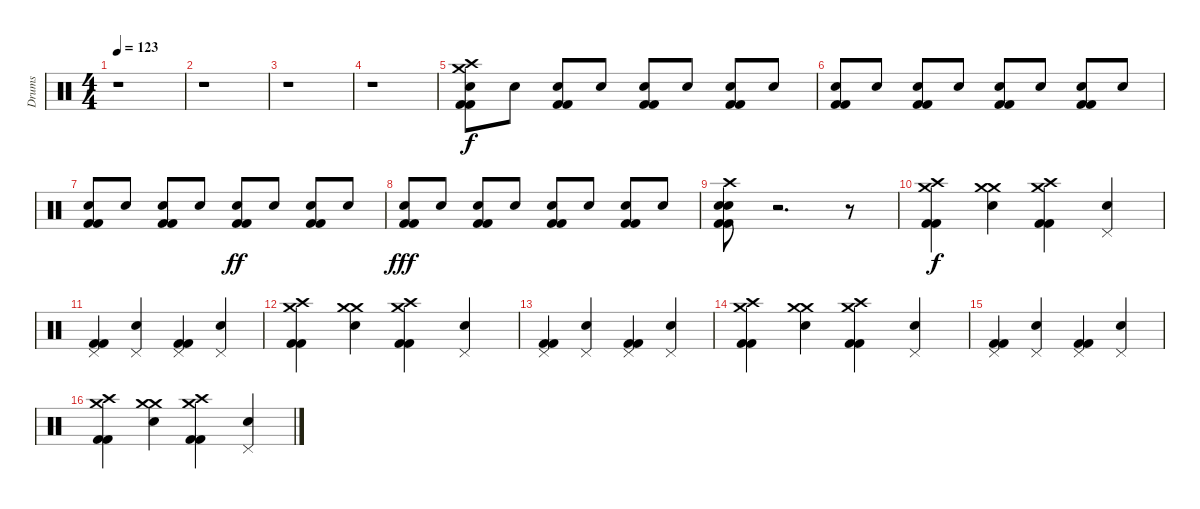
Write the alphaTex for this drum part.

\track ("Drums" "Drums") {instrument percussion}
\staff {score}
\articulation defaults
\ts (4 4)
\tempo 123
\clef neutral
\ks c
r.1{dy f} |
r.1 |
r.1 |
r.1 |
("Crash medium (hit)" "Crash high (hit)" "Snare (hit) 2" "Kick (hit) 2" "Kick (hit) 2").8 "Snare (hit) 2".8 ("Snare (hit) 2" "Kick (hit) 2" "Kick (hit) 2").8 "Snare (hit) 2".8 ("Snare (hit) 2" "Kick (hit) 2" "Kick (hit) 2").8 "Snare (hit) 2".8 ("Snare (hit) 2" "Kick (hit) 2" "Kick (hit) 2").8 "Snare (hit) 2".8 |
("Snare (hit) 2" "Kick (hit) 2" "Kick (hit) 2").8 "Snare (hit) 2".8 ("Snare (hit) 2" "Kick (hit) 2" "Kick (hit) 2").8 "Snare (hit) 2".8 ("Snare (hit) 2" "Kick (hit) 2" "Kick (hit) 2").8 "Snare (hit) 2".8 ("Snare (hit) 2" "Kick (hit) 2" "Kick (hit) 2").8 "Snare (hit) 2".8 |
("Snare (hit) 2" "Kick (hit) 2" "Kick (hit) 2").8 "Snare (hit) 2".8 ("Snare (hit) 2" "Kick (hit) 2" "Kick (hit) 2").8 "Snare (hit) 2".8 ("Snare (hit) 2" "Kick (hit) 2" "Kick (hit) 2").8{dy ff} "Snare (hit) 2".8 ("Snare (hit) 2" "Kick (hit) 2" "Kick (hit) 2").8 "Snare (hit) 2".8 |
("Snare (hit) 2" "Kick (hit) 2" "Kick (hit) 2").8{dy fff} "Snare (hit) 2".8 ("Snare (hit) 2" "Kick (hit) 2" "Kick (hit) 2").8 "Snare (hit) 2".8 ("Snare (hit) 2" "Kick (hit) 2" "Kick (hit) 2").8 "Snare (hit) 2".8 ("Snare (hit) 2" "Kick (hit) 2" "Kick (hit) 2").8 "Snare (hit) 2".8 |
("Crash high (hit)" "Snare (hit) 2" "Snare (hit) 2" "Kick (hit) 2" "Kick (hit) 2").8 r.2{d} r.8 |
("Crash medium (hit)" "Crash high (hit)" "Kick (hit) 2" "Kick (hit) 2").4{dy f} ("Crash medium (hit)" "Crash medium (hit)" "Snare (hit) 2").4 ("Crash medium (hit)" "Crash high (hit)" "Kick (hit) 2" "Kick (hit) 2").4 ("Pedal Hi-Hat (hit)" "Snare (hit) 2").4 |
("Pedal Hi-Hat (hit)" "Kick (hit) 2" "Kick (hit) 2").4 ("Pedal Hi-Hat (hit)" "Snare (hit) 2").4 ("Pedal Hi-Hat (hit)" "Kick (hit) 2" "Kick (hit) 2").4 ("Pedal Hi-Hat (hit)" "Snare (hit) 2").4 |
("Crash medium (hit)" "Crash high (hit)" "Kick (hit) 2" "Kick (hit) 2").4 ("Crash medium (hit)" "Crash medium (hit)" "Snare (hit) 2").4 ("Crash medium (hit)" "Crash high (hit)" "Kick (hit) 2" "Kick (hit) 2").4 ("Pedal Hi-Hat (hit)" "Snare (hit) 2").4 |
("Pedal Hi-Hat (hit)" "Kick (hit) 2" "Kick (hit) 2").4 ("Pedal Hi-Hat (hit)" "Snare (hit) 2").4 ("Pedal Hi-Hat (hit)" "Kick (hit) 2" "Kick (hit) 2").4 ("Pedal Hi-Hat (hit)" "Snare (hit) 2").4 |
("Crash medium (hit)" "Crash high (hit)" "Kick (hit) 2" "Kick (hit) 2").4 ("Crash medium (hit)" "Crash medium (hit)" "Snare (hit) 2").4 ("Crash medium (hit)" "Crash high (hit)" "Kick (hit) 2" "Kick (hit) 2").4 ("Pedal Hi-Hat (hit)" "Snare (hit) 2").4 |
("Pedal Hi-Hat (hit)" "Kick (hit) 2" "Kick (hit) 2").4 ("Pedal Hi-Hat (hit)" "Snare (hit) 2").4 ("Pedal Hi-Hat (hit)" "Kick (hit) 2" "Kick (hit) 2").4 ("Pedal Hi-Hat (hit)" "Snare (hit) 2").4 |
("Crash medium (hit)" "Crash high (hit)" "Kick (hit) 2" "Kick (hit) 2").4 ("Crash medium (hit)" "Crash medium (hit)" "Snare (hit) 2").4 ("Crash medium (hit)" "Crash high (hit)" "Kick (hit) 2" "Kick (hit) 2").4 ("Pedal Hi-Hat (hit)" "Snare (hit) 2").4
